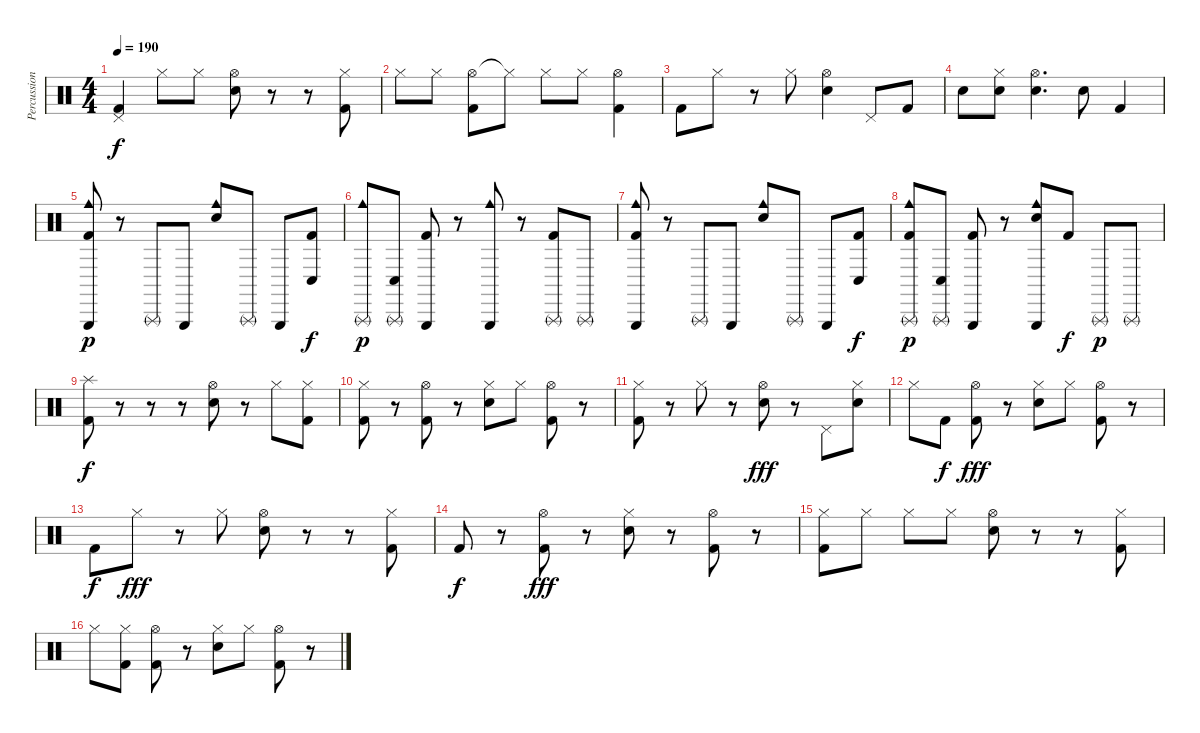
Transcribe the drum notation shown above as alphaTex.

\track ("Percussion" "Percussion") {instrument percussion}
\staff {score}
\articulation defaults
\ts (4 4)
\tempo 190
\clef neutral
\ks c
("Pedal Hi-Hat (hit)" "Kick (hit) 2").4{dy f} "Hi-Hat (closed)".8 "Hi-Hat (closed)".8 ("Hi-Hat (open)" "Electric Snare (hit)").8 r.8 r.8 ("Hi-Hat (closed)" "Kick (hit) 2").8 |
"Hi-Hat (closed)".8 "Hi-Hat (closed)".8 ("Hi-Hat (open)" "Kick (hit) 2").8 "Hi-Hat (closed)"{t}.8 "Hi-Hat (closed)".8 "Hi-Hat (closed)".8 ("Hi-Hat (open)" "Kick (hit) 2").4 |
"Kick (hit) 2".8 "Hi-Hat (closed)".8 r.8 "Hi-Hat (closed)".8 ("Hi-Hat (open)" "Electric Snare (hit)").4 "Pedal Hi-Hat (hit)".8 "Kick (hit) 2".8 |
"Electric Snare (hit)".8 ("Hi-Hat (closed)" "Electric Snare (hit)").8 ("Hi-Hat (open)" "Electric Snare (hit)").4{d} "Electric Snare (hit)".8 "Kick (hit) 2".4 |
("Cowbell medium (hit)" "Triangle (hit)" "Kick (hit) 2").8{dy p} r.8 "Triangle (rnute)".8 "Triangle (hit)".8 ("Cowbell medium (hit)" "Electric Snare (hit)").8 "Triangle (rnute)".8 "Triangle (hit)".8 ("Conga low (hit)" "Kick (hit) 2").8{dy f} |
("Cowbell medium (hit)" "Triangle (rnute)").8{dy p} ("Conga low (hit)" "Triangle (rnute)").8 ("Triangle (hit)" "Kick (hit) 2").8 r.8 ("Cowbell medium (hit)" "Triangle (hit)").8 r.8 ("Triangle (rnute)" "Kick (hit) 2").8 "Triangle (rnute)".8 |
("Cowbell medium (hit)" "Triangle (hit)" "Kick (hit) 2").8 r.8 "Triangle (rnute)".8 "Triangle (hit)".8 ("Cowbell medium (hit)" "Electric Snare (hit)").8 "Triangle (rnute)".8 "Triangle (hit)".8 ("Conga low (hit)" "Kick (hit) 2").8{dy f} |
("Cowbell medium (hit)" "Triangle (rnute)" "Kick (hit) 2").8{dy p} ("Conga low (hit)" "Triangle (rnute)").8 ("Triangle (hit)" "Kick (hit) 2").8 r.8 ("Cowbell medium (hit)" "Triangle (hit)" "Electric Snare (hit)").8 "Kick (hit) 2".8{dy f} "Triangle (rnute)".8{dy p} "Triangle (rnute)".8 |
("Splash (hit)" "Kick (hit) 2").8{dy f} r.8 r.8 r.8 ("Hi-Hat (open)" "Electric Snare (hit)").8 r.8 "Hi-Hat (closed)".8 ("Hi-Hat (closed)" "Kick (hit) 2").8 |
("Hi-Hat (closed)" "Kick (hit) 2").8 r.8 ("Hi-Hat (open)" "Kick (hit) 2").8 r.8 ("Hi-Hat (closed)" "Electric Snare (hit)").8 "Hi-Hat (closed)".8 ("Hi-Hat (open)" "Kick (hit) 2").8 r.8 |
("Hi-Hat (closed)" "Kick (hit) 2").8 r.8 "Hi-Hat (closed)".8 r.8 ("Hi-Hat (open)" "Electric Snare (hit)").8{dy fff} r.8 "Pedal Hi-Hat (hit)".8 ("Hi-Hat (closed)" "Electric Snare (hit)").8 |
"Hi-Hat (closed)".8 "Kick (hit) 2".8{dy f} ("Hi-Hat (open)" "Kick (hit) 2").8{dy fff} r.8 ("Hi-Hat (closed)" "Electric Snare (hit)").8 "Hi-Hat (closed)".8 ("Hi-Hat (open)" "Kick (hit) 2").8 r.8 |
"Kick (hit) 2".8{dy f} "Hi-Hat (closed)".8{dy fff} r.8 "Hi-Hat (closed)".8 ("Hi-Hat (open)" "Electric Snare (hit)").8 r.8 r.8 ("Hi-Hat (closed)" "Kick (hit) 2").8 |
"Kick (hit) 2".8{dy f} r.8 ("Hi-Hat (open)" "Kick (hit) 2").8{dy fff} r.8 ("Hi-Hat (closed)" "Electric Snare (hit)").8 r.8 ("Hi-Hat (open)" "Kick (hit) 2").8 r.8 |
("Hi-Hat (closed)" "Kick (hit) 2").8 "Hi-Hat (closed)".8 "Hi-Hat (closed)".8 "Hi-Hat (closed)".8 ("Hi-Hat (open)" "Electric Snare (hit)").8 r.8 r.8 ("Hi-Hat (closed)" "Kick (hit) 2").8 |
"Hi-Hat (closed)".8 ("Hi-Hat (closed)" "Kick (hit) 2").8 ("Hi-Hat (open)" "Kick (hit) 2").8 r.8 ("Hi-Hat (closed)" "Electric Snare (hit)").8 "Hi-Hat (closed)".8 ("Hi-Hat (open)" "Kick (hit) 2").8 r.8
